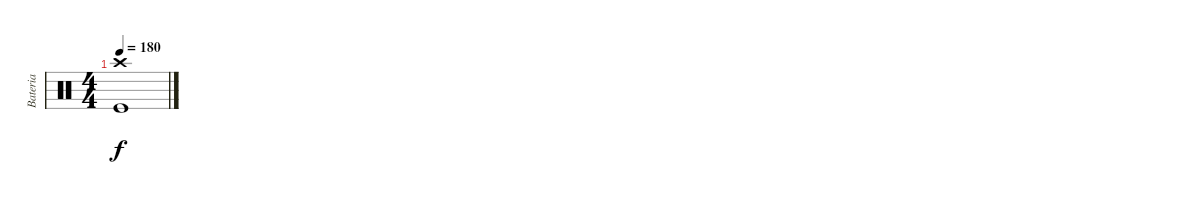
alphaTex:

\track ("Bateria" "Bateria") {instrument percussion}
\staff {score}
\articulation defaults
\ts (4 4)
\tempo 180
\clef neutral
\ks c
("Crash high (hit)" "Kick (hit)").1{dy f}
